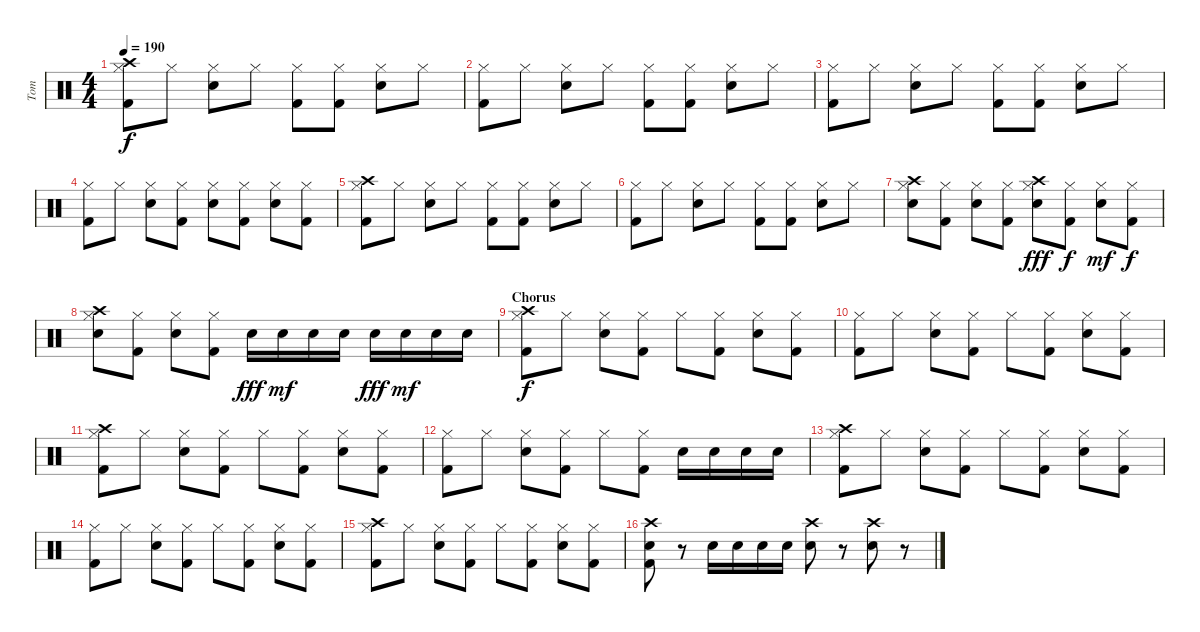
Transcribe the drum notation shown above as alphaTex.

\track ("Tom" "Tom") {instrument percussion}
\staff {score}
\articulation defaults
\ts (4 4)
\tempo 190
\clef neutral
\ks c
("Crash high (hit)" "Hi-Hat (closed)" "Kick (hit) 2").8{dy f} "Hi-Hat (closed)".8 ("Hi-Hat (closed)" "Electric Snare (hit)").8 "Hi-Hat (closed)".8 ("Hi-Hat (closed)" "Kick (hit) 2").8 ("Hi-Hat (closed)" "Kick (hit) 2").8 ("Hi-Hat (closed)" "Electric Snare (hit)").8 "Hi-Hat (closed)".8 |
("Hi-Hat (closed)" "Kick (hit) 2").8 "Hi-Hat (closed)".8 ("Hi-Hat (closed)" "Electric Snare (hit)").8 "Hi-Hat (closed)".8 ("Hi-Hat (closed)" "Kick (hit) 2").8 ("Hi-Hat (closed)" "Kick (hit) 2").8 ("Hi-Hat (closed)" "Electric Snare (hit)").8 "Hi-Hat (closed)".8 |
("Hi-Hat (closed)" "Kick (hit) 2").8 "Hi-Hat (closed)".8 ("Hi-Hat (closed)" "Electric Snare (hit)").8 "Hi-Hat (closed)".8 ("Hi-Hat (closed)" "Kick (hit) 2").8 ("Hi-Hat (closed)" "Kick (hit) 2").8 ("Hi-Hat (closed)" "Electric Snare (hit)").8 "Hi-Hat (closed)".8 |
("Hi-Hat (closed)" "Kick (hit) 2").8 "Hi-Hat (closed)".8 ("Hi-Hat (closed)" "Electric Snare (hit)").8 ("Hi-Hat (closed)" "Kick (hit) 2").8 ("Hi-Hat (closed)" "Electric Snare (hit)").8 ("Hi-Hat (closed)" "Kick (hit) 2").8 ("Hi-Hat (closed)" "Electric Snare (hit)").8 ("Hi-Hat (closed)" "Kick (hit) 2").8 |
("Crash high (hit)" "Hi-Hat (closed)" "Kick (hit) 2").8 "Hi-Hat (closed)".8 ("Hi-Hat (closed)" "Electric Snare (hit)").8 "Hi-Hat (closed)".8 ("Hi-Hat (closed)" "Kick (hit) 2").8 ("Hi-Hat (closed)" "Kick (hit) 2").8 ("Hi-Hat (closed)" "Electric Snare (hit)").8 "Hi-Hat (closed)".8 |
("Hi-Hat (closed)" "Kick (hit) 2").8 "Hi-Hat (closed)".8 ("Hi-Hat (closed)" "Electric Snare (hit)").8 "Hi-Hat (closed)".8 ("Hi-Hat (closed)" "Kick (hit) 2").8 ("Hi-Hat (closed)" "Kick (hit) 2").8 ("Hi-Hat (closed)" "Electric Snare (hit)").8 "Hi-Hat (closed)".8 |
("Crash high (hit)" "Hi-Hat (closed)" "Electric Snare (hit)").8 ("Hi-Hat (closed)" "Kick (hit) 2").8 ("Hi-Hat (closed)" "Electric Snare (hit)").8 ("Hi-Hat (closed)" "Kick (hit) 2").8 ("Crash high (hit)" "Hi-Hat (closed)" "Electric Snare (hit)").8{dy fff} ("Hi-Hat (closed)" "Kick (hit) 2").8{dy f} ("Hi-Hat (closed)" "Electric Snare (hit)").8{dy mf} ("Hi-Hat (closed)" "Kick (hit) 2").8{dy f} |
("Crash high (hit)" "Hi-Hat (closed)" "Electric Snare (hit)").8 ("Hi-Hat (closed)" "Kick (hit) 2").8 ("Hi-Hat (closed)" "Electric Snare (hit)").8 ("Hi-Hat (closed)" "Kick (hit) 2").8 "Electric Snare (hit)".16{dy fff} "Electric Snare (hit)".16{dy mf} "Electric Snare (hit)".16 "Electric Snare (hit)".16 "Electric Snare (hit)".16{dy fff} "Electric Snare (hit)".16{dy mf} "Electric Snare (hit)".16 "Electric Snare (hit)".16 |
\section ("" "Chorus")
("Crash high (hit)" "Hi-Hat (closed)" "Kick (hit) 2").8{dy f} "Hi-Hat (closed)".8 ("Hi-Hat (closed)" "Electric Snare (hit)").8 ("Hi-Hat (closed)" "Kick (hit) 2").8 "Hi-Hat (closed)".8 ("Hi-Hat (closed)" "Kick (hit) 2").8 ("Hi-Hat (closed)" "Electric Snare (hit)").8 ("Hi-Hat (closed)" "Kick (hit) 2").8 |
("Hi-Hat (closed)" "Kick (hit) 2").8 "Hi-Hat (closed)".8 ("Hi-Hat (closed)" "Electric Snare (hit)").8 ("Hi-Hat (closed)" "Kick (hit) 2").8 "Hi-Hat (closed)".8 ("Hi-Hat (closed)" "Kick (hit) 2").8 ("Hi-Hat (closed)" "Electric Snare (hit)").8 ("Hi-Hat (closed)" "Kick (hit) 2").8 |
("Crash high (hit)" "Hi-Hat (closed)" "Kick (hit) 2").8 "Hi-Hat (closed)".8 ("Hi-Hat (closed)" "Electric Snare (hit)").8 ("Hi-Hat (closed)" "Kick (hit) 2").8 "Hi-Hat (closed)".8 ("Hi-Hat (closed)" "Kick (hit) 2").8 ("Hi-Hat (closed)" "Electric Snare (hit)").8 ("Hi-Hat (closed)" "Kick (hit) 2").8 |
("Hi-Hat (closed)" "Kick (hit) 2").8 "Hi-Hat (closed)".8 ("Hi-Hat (closed)" "Electric Snare (hit)").8 ("Hi-Hat (closed)" "Kick (hit) 2").8 "Hi-Hat (closed)".8 ("Hi-Hat (closed)" "Kick (hit) 2").8 "Electric Snare (hit)".16 "Electric Snare (hit)".16 "Electric Snare (hit)".16 "Electric Snare (hit)".16 |
("Crash high (hit)" "Hi-Hat (closed)" "Kick (hit) 2").8 "Hi-Hat (closed)".8 ("Hi-Hat (closed)" "Electric Snare (hit)").8 ("Hi-Hat (closed)" "Kick (hit) 2").8 "Hi-Hat (closed)".8 ("Hi-Hat (closed)" "Kick (hit) 2").8 ("Hi-Hat (closed)" "Electric Snare (hit)").8 ("Hi-Hat (closed)" "Kick (hit) 2").8 |
("Hi-Hat (closed)" "Kick (hit) 2").8 "Hi-Hat (closed)".8 ("Hi-Hat (closed)" "Electric Snare (hit)").8 ("Hi-Hat (closed)" "Kick (hit) 2").8 "Hi-Hat (closed)".8 ("Hi-Hat (closed)" "Kick (hit) 2").8 ("Hi-Hat (closed)" "Electric Snare (hit)").8 ("Hi-Hat (closed)" "Kick (hit) 2").8 |
("Crash high (hit)" "Hi-Hat (closed)" "Kick (hit) 2").8 "Hi-Hat (closed)".8 ("Hi-Hat (closed)" "Electric Snare (hit)").8 ("Hi-Hat (closed)" "Kick (hit) 2").8 "Hi-Hat (closed)".8 ("Hi-Hat (closed)" "Kick (hit) 2").8 ("Hi-Hat (closed)" "Electric Snare (hit)").8 ("Hi-Hat (closed)" "Kick (hit) 2").8 |
("Crash high (hit)" "Electric Snare (hit)" "Kick (hit) 2").8 r.8 "Electric Snare (hit)".16 "Electric Snare (hit)".16 "Electric Snare (hit)".16 "Electric Snare (hit)".16 ("Crash high (hit)" "Electric Snare (hit)").8 r.8 ("Crash high (hit)" "Electric Snare (hit)").8 r.8
